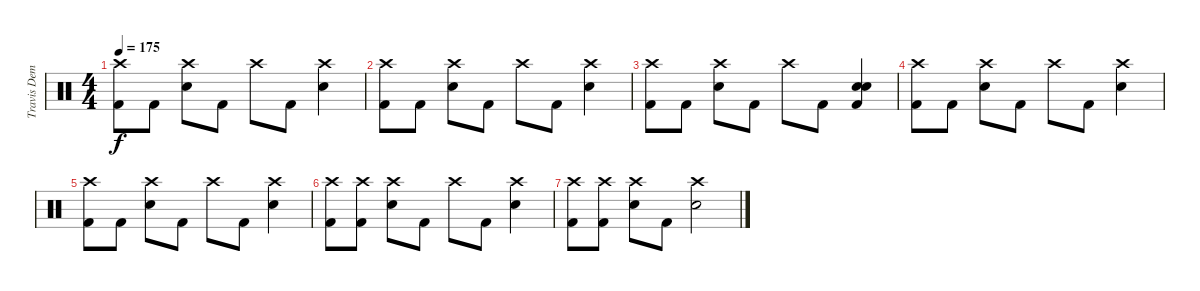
\track ("Travis Dempsey" "Travis Dem") {instrument percussion}
\staff {score}
\articulation defaults
\ts (4 4)
\tempo 175
\clef neutral
\ks c
("Crash high (hit)" "Kick (hit) 2").8{dy f} "Kick (hit) 2".8 ("Crash high (hit)" "Electric Snare (hit)").8 "Kick (hit) 2".8 "Crash high (hit)".8 "Kick (hit) 2".8 ("Crash high (hit)" "Electric Snare (hit)").4 |
("Crash high (hit)" "Kick (hit) 2").8 "Kick (hit) 2".8 ("Crash high (hit)" "Electric Snare (hit)").8 "Kick (hit) 2".8 "Crash high (hit)".8 "Kick (hit) 2".8 ("Crash high (hit)" "Electric Snare (hit)").4 |
("Crash high (hit)" "Kick (hit) 2").8 "Kick (hit) 2".8 ("Crash high (hit)" "Electric Snare (hit)").8 "Kick (hit) 2".8 "Crash high (hit)".8 "Kick (hit) 2".8 ("Electric Snare (hit)" "Electric Snare (hit)" "Kick (hit) 2").4 |
("Crash high (hit)" "Kick (hit) 2").8 "Kick (hit) 2".8 ("Crash high (hit)" "Electric Snare (hit)").8 "Kick (hit) 2".8 "Crash high (hit)".8 "Kick (hit) 2".8 ("Crash high (hit)" "Electric Snare (hit)").4 |
("Crash high (hit)" "Kick (hit) 2").8 "Kick (hit) 2".8 ("Crash high (hit)" "Electric Snare (hit)").8 "Kick (hit) 2".8 "Crash high (hit)".8 "Kick (hit) 2".8 ("Crash high (hit)" "Electric Snare (hit)").4 |
("Crash high (hit)" "Kick (hit) 2").8 ("Crash high (hit)" "Kick (hit) 2").8 ("Crash high (hit)" "Electric Snare (hit)").8 "Kick (hit) 2".8 "Crash high (hit)".8 "Kick (hit) 2".8 ("Crash high (hit)" "Electric Snare (hit)").4 |
("Crash high (hit)" "Kick (hit) 2").8 ("Crash high (hit)" "Kick (hit) 2").8 ("Crash high (hit)" "Electric Snare (hit)").8 "Kick (hit) 2".8 ("Crash high (hit)" "Electric Snare (hit)").2
